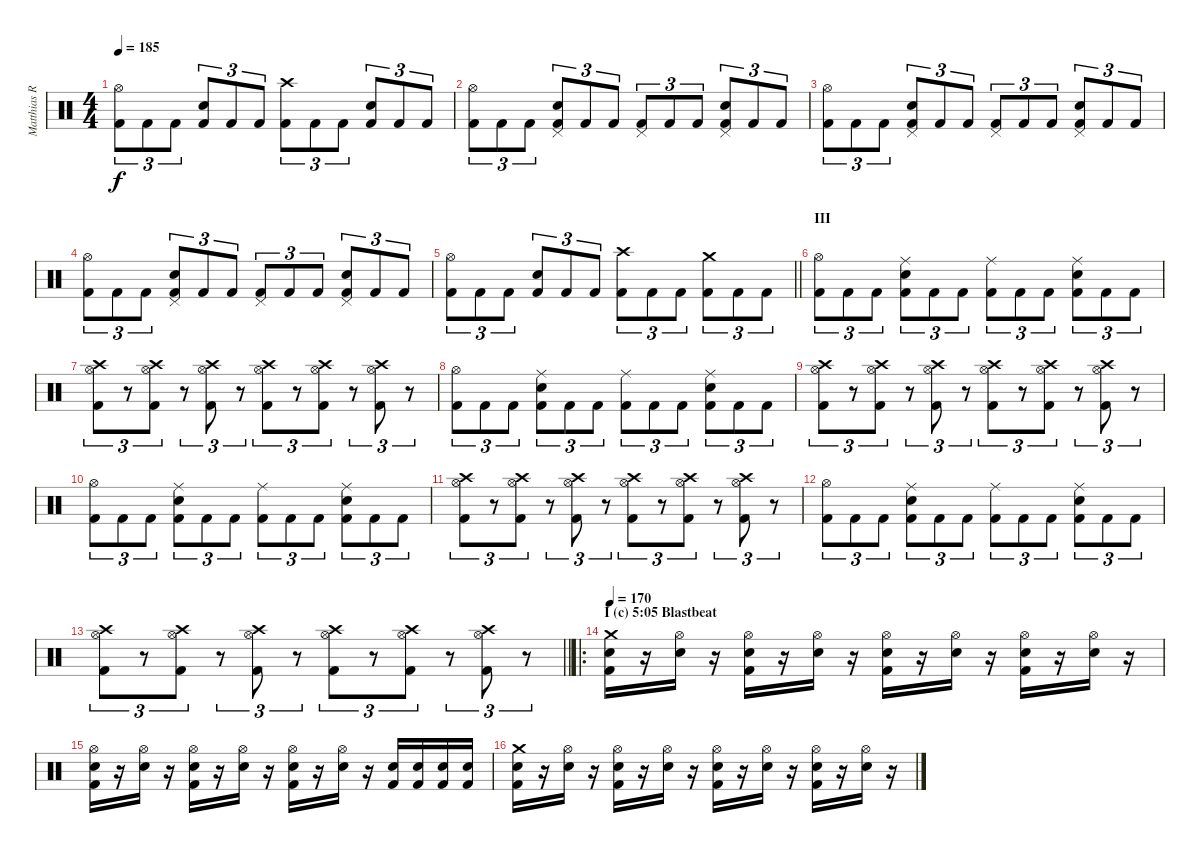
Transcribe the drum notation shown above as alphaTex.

\track ("Matthias R." "Matthias R") {instrument percussion}
\staff {score}
\articulation defaults
\ts (4 4)
\tempo 185
\clef neutral
\ks c
("Kick (hit) 2" "Hi-Hat (open)").8{tu (3 2) dy f} "Kick (hit) 2".8{tu (3 2)} "Kick (hit) 2".8{tu (3 2)} ("Kick (hit) 2" "Snare (hit) 2").8{tu (3 2)} "Kick (hit) 2".8{tu (3 2)} "Kick (hit) 2".8{tu (3 2)} ("Kick (hit) 2" "Crash high (hit)").8{tu (3 2)} "Kick (hit) 2".8{tu (3 2)} "Kick (hit) 2".8{tu (3 2)} ("Kick (hit) 2" "Snare (hit) 2").8{tu (3 2)} "Kick (hit) 2".8{tu (3 2)} "Kick (hit) 2".8{tu (3 2)} |
("Kick (hit) 2" "Hi-Hat (open)").8{tu (3 2)} "Kick (hit) 2".8{tu (3 2)} "Kick (hit) 2".8{tu (3 2)} ("Kick (hit) 2" "Snare (hit) 2" "Pedal Hi-Hat (hit)").8{tu (3 2)} "Kick (hit) 2".8{tu (3 2)} "Kick (hit) 2".8{tu (3 2)} ("Kick (hit) 2" "Pedal Hi-Hat (hit)").8{tu (3 2)} "Kick (hit) 2".8{tu (3 2)} "Kick (hit) 2".8{tu (3 2)} ("Kick (hit) 2" "Snare (hit) 2" "Pedal Hi-Hat (hit)").8{tu (3 2)} "Kick (hit) 2".8{tu (3 2)} "Kick (hit) 2".8{tu (3 2)} |
("Kick (hit) 2" "Hi-Hat (open)").8{tu (3 2)} "Kick (hit) 2".8{tu (3 2)} "Kick (hit) 2".8{tu (3 2)} ("Kick (hit) 2" "Snare (hit) 2" "Pedal Hi-Hat (hit)").8{tu (3 2)} "Kick (hit) 2".8{tu (3 2)} "Kick (hit) 2".8{tu (3 2)} ("Kick (hit) 2" "Pedal Hi-Hat (hit)").8{tu (3 2)} "Kick (hit) 2".8{tu (3 2)} "Kick (hit) 2".8{tu (3 2)} ("Kick (hit) 2" "Snare (hit) 2" "Pedal Hi-Hat (hit)").8{tu (3 2)} "Kick (hit) 2".8{tu (3 2)} "Kick (hit) 2".8{tu (3 2)} |
("Kick (hit) 2" "Hi-Hat (open)").8{tu (3 2)} "Kick (hit) 2".8{tu (3 2)} "Kick (hit) 2".8{tu (3 2)} ("Kick (hit) 2" "Snare (hit) 2" "Pedal Hi-Hat (hit)").8{tu (3 2)} "Kick (hit) 2".8{tu (3 2)} "Kick (hit) 2".8{tu (3 2)} ("Kick (hit) 2" "Pedal Hi-Hat (hit)").8{tu (3 2)} "Kick (hit) 2".8{tu (3 2)} "Kick (hit) 2".8{tu (3 2)} ("Kick (hit) 2" "Snare (hit) 2" "Pedal Hi-Hat (hit)").8{tu (3 2)} "Kick (hit) 2".8{tu (3 2)} "Kick (hit) 2".8{tu (3 2)} |
\barLineRight lightlight
("Kick (hit) 2" "Hi-Hat (open)").8{tu (3 2)} "Kick (hit) 2".8{tu (3 2)} "Kick (hit) 2".8{tu (3 2)} ("Kick (hit) 2" "Snare (hit) 2").8{tu (3 2)} "Kick (hit) 2".8{tu (3 2)} "Kick (hit) 2".8{tu (3 2)} ("Kick (hit) 2" "Crash high (hit)").8{tu (3 2)} "Kick (hit) 2".8{tu (3 2)} "Kick (hit) 2".8{tu (3 2)} ("Kick (hit) 2" "Crash medium (hit)").8{tu (3 2)} "Kick (hit) 2".8{tu (3 2)} "Kick (hit) 2".8{tu (3 2)} |
\section ("" "III")
("Kick (hit) 2" "Hi-Hat (open)").8{tu (3 2)} "Kick (hit) 2".8{tu (3 2)} "Kick (hit) 2".8{tu (3 2)} ("Kick (hit) 2" "Snare (hit) 2" "Ride (middle)").8{tu (3 2)} "Kick (hit) 2".8{tu (3 2)} "Kick (hit) 2".8{tu (3 2)} ("Kick (hit) 2" "Ride (middle)").8{tu (3 2)} "Kick (hit) 2".8{tu (3 2)} "Kick (hit) 2".8{tu (3 2)} ("Kick (hit) 2" "Snare (hit) 2" "Ride (middle)").8{tu (3 2)} "Kick (hit) 2".8{tu (3 2)} "Kick (hit) 2".8{tu (3 2)} |
("Kick (hit) 2" "Hi-Hat (open)" "Crash high (hit)").8{tu (3 2)} r.8{tu (3 2)} ("Kick (hit) 2" "Hi-Hat (open)" "Crash high (hit)").8{tu (3 2)} r.8{tu (3 2)} ("Kick (hit) 2" "Hi-Hat (open)" "Crash high (hit)").8{tu (3 2)} r.8{tu (3 2)} ("Kick (hit) 2" "Hi-Hat (open)" "Crash high (hit)").8{tu (3 2)} r.8{tu (3 2)} ("Kick (hit) 2" "Hi-Hat (open)" "Crash high (hit)").8{tu (3 2)} r.8{tu (3 2)} ("Kick (hit) 2" "Hi-Hat (open)" "Crash high (hit)").8{tu (3 2)} r.8{tu (3 2)} |
("Kick (hit) 2" "Hi-Hat (open)").8{tu (3 2)} "Kick (hit) 2".8{tu (3 2)} "Kick (hit) 2".8{tu (3 2)} ("Kick (hit) 2" "Snare (hit) 2" "Ride (middle)").8{tu (3 2)} "Kick (hit) 2".8{tu (3 2)} "Kick (hit) 2".8{tu (3 2)} ("Kick (hit) 2" "Ride (middle)").8{tu (3 2)} "Kick (hit) 2".8{tu (3 2)} "Kick (hit) 2".8{tu (3 2)} ("Kick (hit) 2" "Snare (hit) 2" "Ride (middle)").8{tu (3 2)} "Kick (hit) 2".8{tu (3 2)} "Kick (hit) 2".8{tu (3 2)} |
("Kick (hit) 2" "Hi-Hat (open)" "Crash high (hit)").8{tu (3 2)} r.8{tu (3 2)} ("Kick (hit) 2" "Hi-Hat (open)" "Crash high (hit)").8{tu (3 2)} r.8{tu (3 2)} ("Kick (hit) 2" "Hi-Hat (open)" "Crash high (hit)").8{tu (3 2)} r.8{tu (3 2)} ("Kick (hit) 2" "Hi-Hat (open)" "Crash high (hit)").8{tu (3 2)} r.8{tu (3 2)} ("Kick (hit) 2" "Hi-Hat (open)" "Crash high (hit)").8{tu (3 2)} r.8{tu (3 2)} ("Kick (hit) 2" "Hi-Hat (open)" "Crash high (hit)").8{tu (3 2)} r.8{tu (3 2)} |
("Kick (hit) 2" "Hi-Hat (open)").8{tu (3 2)} "Kick (hit) 2".8{tu (3 2)} "Kick (hit) 2".8{tu (3 2)} ("Kick (hit) 2" "Snare (hit) 2" "Ride (middle)").8{tu (3 2)} "Kick (hit) 2".8{tu (3 2)} "Kick (hit) 2".8{tu (3 2)} ("Kick (hit) 2" "Ride (middle)").8{tu (3 2)} "Kick (hit) 2".8{tu (3 2)} "Kick (hit) 2".8{tu (3 2)} ("Kick (hit) 2" "Snare (hit) 2" "Ride (middle)").8{tu (3 2)} "Kick (hit) 2".8{tu (3 2)} "Kick (hit) 2".8{tu (3 2)} |
("Kick (hit) 2" "Hi-Hat (open)" "Crash high (hit)").8{tu (3 2)} r.8{tu (3 2)} ("Kick (hit) 2" "Hi-Hat (open)" "Crash high (hit)").8{tu (3 2)} r.8{tu (3 2)} ("Kick (hit) 2" "Hi-Hat (open)" "Crash high (hit)").8{tu (3 2)} r.8{tu (3 2)} ("Kick (hit) 2" "Hi-Hat (open)" "Crash high (hit)").8{tu (3 2)} r.8{tu (3 2)} ("Kick (hit) 2" "Hi-Hat (open)" "Crash high (hit)").8{tu (3 2)} r.8{tu (3 2)} ("Kick (hit) 2" "Hi-Hat (open)" "Crash high (hit)").8{tu (3 2)} r.8{tu (3 2)} |
("Kick (hit) 2" "Hi-Hat (open)").8{tu (3 2)} "Kick (hit) 2".8{tu (3 2)} "Kick (hit) 2".8{tu (3 2)} ("Kick (hit) 2" "Snare (hit) 2" "Ride (middle)").8{tu (3 2)} "Kick (hit) 2".8{tu (3 2)} "Kick (hit) 2".8{tu (3 2)} ("Kick (hit) 2" "Ride (middle)").8{tu (3 2)} "Kick (hit) 2".8{tu (3 2)} "Kick (hit) 2".8{tu (3 2)} ("Kick (hit) 2" "Snare (hit) 2" "Ride (middle)").8{tu (3 2)} "Kick (hit) 2".8{tu (3 2)} "Kick (hit) 2".8{tu (3 2)} |
\barLineRight lightlight
("Kick (hit) 2" "Hi-Hat (open)" "Crash high (hit)").8{tu (3 2)} r.8{tu (3 2)} ("Kick (hit) 2" "Hi-Hat (open)" "Crash high (hit)").8{tu (3 2)} r.8{tu (3 2)} ("Kick (hit) 2" "Hi-Hat (open)" "Crash high (hit)").8{tu (3 2)} r.8{tu (3 2)} ("Kick (hit) 2" "Hi-Hat (open)" "Crash high (hit)").8{tu (3 2)} r.8{tu (3 2)} ("Kick (hit) 2" "Hi-Hat (open)" "Crash high (hit)").8{tu (3 2)} r.8{tu (3 2)} ("Kick (hit) 2" "Hi-Hat (open)" "Crash high (hit)").8{tu (3 2)} r.8{tu (3 2)} |
\ro
\section ("" "I (c) 5:05 Blastbeat")
\tempo 170
("Kick (hit) 2" "Snare (hit) 2" "Crash medium (hit)").16 r.16 ("Snare (hit) 2" "Hi-Hat (open)").16 r.16 ("Kick (hit) 2" "Snare (hit) 2" "Hi-Hat (open)").16 r.16 ("Snare (hit) 2" "Hi-Hat (open)").16 r.16 ("Kick (hit) 2" "Snare (hit) 2" "Hi-Hat (open)").16 r.16 ("Snare (hit) 2" "Hi-Hat (open)").16 r.16 ("Kick (hit) 2" "Snare (hit) 2" "Hi-Hat (open)").16 r.16 ("Snare (hit) 2" "Hi-Hat (open)").16 r.16 |
("Kick (hit) 2" "Snare (hit) 2" "Hi-Hat (open)").16 r.16 ("Snare (hit) 2" "Hi-Hat (open)").16 r.16 ("Kick (hit) 2" "Snare (hit) 2" "Hi-Hat (open)").16 r.16 ("Snare (hit) 2" "Hi-Hat (open)").16 r.16 ("Kick (hit) 2" "Snare (hit) 2" "Hi-Hat (open)").16 r.16 ("Snare (hit) 2" "Hi-Hat (open)").16 r.16 ("Kick (hit) 2" "Snare (hit) 2").16 ("Kick (hit) 2" "Snare (hit) 2").16 ("Kick (hit) 2" "Snare (hit) 2").16 ("Kick (hit) 2" "Snare (hit) 2").16 |
("Kick (hit) 2" "Snare (hit) 2" "Crash medium (hit)").16 r.16 ("Snare (hit) 2" "Hi-Hat (open)").16 r.16 ("Kick (hit) 2" "Snare (hit) 2" "Hi-Hat (open)").16 r.16 ("Snare (hit) 2" "Hi-Hat (open)").16 r.16 ("Kick (hit) 2" "Snare (hit) 2" "Hi-Hat (open)").16 r.16 ("Snare (hit) 2" "Hi-Hat (open)").16 r.16 ("Kick (hit) 2" "Snare (hit) 2" "Hi-Hat (open)").16 r.16 ("Snare (hit) 2" "Hi-Hat (open)").16 r.16
